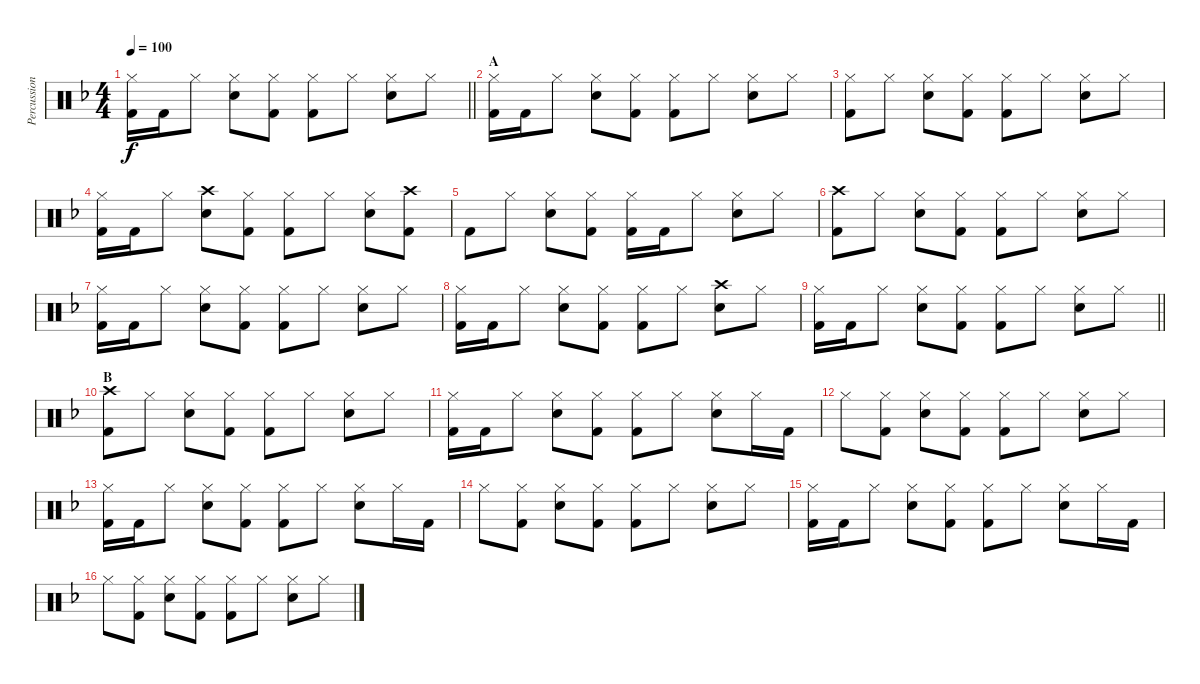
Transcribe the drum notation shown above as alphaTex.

\track ("Percussion" "Percussion") {instrument percussion}
\staff {score}
\articulation defaults
\ts (4 4)
\tempo 100
\clef neutral
\barLineRight lightlight
\ks f
("Hi-Hat (closed)" "Kick (hit) 2").16{dy f} "Kick (hit) 2".16 "Hi-Hat (closed)".8 ("Hi-Hat (closed)" "Snare (hit) 2").8 ("Hi-Hat (closed)" "Kick (hit) 2").8 ("Hi-Hat (closed)" "Kick (hit) 2").8 "Hi-Hat (closed)".8 ("Hi-Hat (closed)" "Snare (hit) 2").8 "Hi-Hat (closed)".8 |
\section ("" "A")
("Hi-Hat (closed)" "Kick (hit) 2").16 "Kick (hit) 2".16 "Hi-Hat (closed)".8 ("Hi-Hat (closed)" "Snare (hit) 2").8 ("Hi-Hat (closed)" "Kick (hit) 2").8 ("Hi-Hat (closed)" "Kick (hit) 2").8 "Hi-Hat (closed)".8 ("Hi-Hat (closed)" "Snare (hit) 2").8 "Hi-Hat (closed)".8 |
("Hi-Hat (closed)" "Kick (hit) 2").8 "Hi-Hat (closed)".8 ("Hi-Hat (closed)" "Snare (hit) 2").8 ("Hi-Hat (closed)" "Kick (hit) 2").8 ("Hi-Hat (closed)" "Kick (hit) 2").8 "Hi-Hat (closed)".8 ("Hi-Hat (closed)" "Snare (hit) 2").8 "Hi-Hat (closed)".8 |
("Hi-Hat (closed)" "Kick (hit) 2").16 "Kick (hit) 2".16 "Hi-Hat (closed)".8 ("Crash high (hit)" "Snare (hit) 2").8 ("Hi-Hat (closed)" "Kick (hit) 2").8 ("Hi-Hat (closed)" "Kick (hit) 2").8 "Hi-Hat (closed)".8 ("Hi-Hat (closed)" "Snare (hit) 2").8 ("Crash high (hit)" "Kick (hit) 2").8 |
"Kick (hit) 2".8 "Hi-Hat (closed)".8 ("Hi-Hat (closed)" "Snare (hit) 2").8 ("Hi-Hat (closed)" "Kick (hit) 2").8 ("Hi-Hat (closed)" "Kick (hit) 2").16 "Kick (hit) 2".16 "Hi-Hat (closed)".8 ("Hi-Hat (closed)" "Snare (hit) 2").8 "Hi-Hat (closed)".8 |
("Crash high (hit)" "Kick (hit) 2").8 "Hi-Hat (closed)".8 ("Hi-Hat (closed)" "Snare (hit) 2").8 ("Hi-Hat (closed)" "Kick (hit) 2").8 ("Hi-Hat (closed)" "Kick (hit) 2").8 "Hi-Hat (closed)".8 ("Hi-Hat (closed)" "Snare (hit) 2").8 "Hi-Hat (closed)".8 |
("Hi-Hat (closed)" "Kick (hit) 2").16 "Kick (hit) 2".16 "Hi-Hat (closed)".8 ("Hi-Hat (closed)" "Snare (hit) 2").8 ("Hi-Hat (closed)" "Kick (hit) 2").8 ("Hi-Hat (closed)" "Kick (hit) 2").8 "Hi-Hat (closed)".8 ("Hi-Hat (closed)" "Snare (hit) 2").8 "Hi-Hat (closed)".8 |
("Hi-Hat (closed)" "Kick (hit) 2").16 "Kick (hit) 2".16 "Hi-Hat (closed)".8 ("Hi-Hat (closed)" "Snare (hit) 2").8 ("Hi-Hat (closed)" "Kick (hit) 2").8 ("Hi-Hat (closed)" "Kick (hit) 2").8 "Hi-Hat (closed)".8 ("Crash high (hit)" "Snare (hit) 2").8 "Hi-Hat (closed)".8 |
\barLineRight lightlight
("Hi-Hat (closed)" "Kick (hit) 2").16 "Kick (hit) 2".16 "Hi-Hat (closed)".8 ("Hi-Hat (closed)" "Snare (hit) 2").8 ("Hi-Hat (closed)" "Kick (hit) 2").8 ("Hi-Hat (closed)" "Kick (hit) 2").8 "Hi-Hat (closed)".8 ("Hi-Hat (closed)" "Snare (hit) 2").8 "Hi-Hat (closed)".8 |
\section ("" "B")
("Crash high (hit)" "Kick (hit) 2").8 "Hi-Hat (closed)".8 ("Hi-Hat (closed)" "Snare (hit) 2").8 ("Hi-Hat (closed)" "Kick (hit) 2").8 ("Hi-Hat (closed)" "Kick (hit) 2").8 "Hi-Hat (closed)".8 ("Hi-Hat (closed)" "Snare (hit) 2").8 "Hi-Hat (closed)".8 |
("Hi-Hat (closed)" "Kick (hit) 2").16 "Kick (hit) 2".16 "Hi-Hat (closed)".8 ("Hi-Hat (closed)" "Snare (hit) 2").8 ("Hi-Hat (closed)" "Kick (hit) 2").8 ("Hi-Hat (closed)" "Kick (hit) 2").8 "Hi-Hat (closed)".8 ("Hi-Hat (closed)" "Snare (hit) 2").8 "Hi-Hat (closed)".16 "Kick (hit) 2".16 |
"Hi-Hat (closed)".8 ("Hi-Hat (closed)" "Kick (hit) 2").8 ("Hi-Hat (closed)" "Snare (hit) 2").8 ("Hi-Hat (closed)" "Kick (hit) 2").8 ("Hi-Hat (closed)" "Kick (hit) 2").8 "Hi-Hat (closed)".8 ("Hi-Hat (closed)" "Snare (hit) 2").8 "Hi-Hat (closed)".8 |
("Hi-Hat (closed)" "Kick (hit) 2").16 "Kick (hit) 2".16 "Hi-Hat (closed)".8 ("Hi-Hat (closed)" "Snare (hit) 2").8 ("Hi-Hat (closed)" "Kick (hit) 2").8 ("Hi-Hat (closed)" "Kick (hit) 2").8 "Hi-Hat (closed)".8 ("Hi-Hat (closed)" "Snare (hit) 2").8 "Hi-Hat (closed)".16 "Kick (hit) 2".16 |
"Hi-Hat (closed)".8 ("Hi-Hat (closed)" "Kick (hit) 2").8 ("Hi-Hat (closed)" "Snare (hit) 2").8 ("Hi-Hat (closed)" "Kick (hit) 2").8 ("Hi-Hat (closed)" "Kick (hit) 2").8 "Hi-Hat (closed)".8 ("Hi-Hat (closed)" "Snare (hit) 2").8 "Hi-Hat (closed)".8 |
("Hi-Hat (closed)" "Kick (hit) 2").16 "Kick (hit) 2".16 "Hi-Hat (closed)".8 ("Hi-Hat (closed)" "Snare (hit) 2").8 ("Hi-Hat (closed)" "Kick (hit) 2").8 ("Hi-Hat (closed)" "Kick (hit) 2").8 "Hi-Hat (closed)".8 ("Hi-Hat (closed)" "Snare (hit) 2").8 "Hi-Hat (closed)".16 "Kick (hit) 2".16 |
"Hi-Hat (closed)".8 ("Hi-Hat (closed)" "Kick (hit) 2").8 ("Hi-Hat (closed)" "Snare (hit) 2").8 ("Hi-Hat (closed)" "Kick (hit) 2").8 ("Hi-Hat (closed)" "Kick (hit) 2").8 "Hi-Hat (closed)".8 ("Hi-Hat (closed)" "Snare (hit) 2").8 "Hi-Hat (closed)".8
